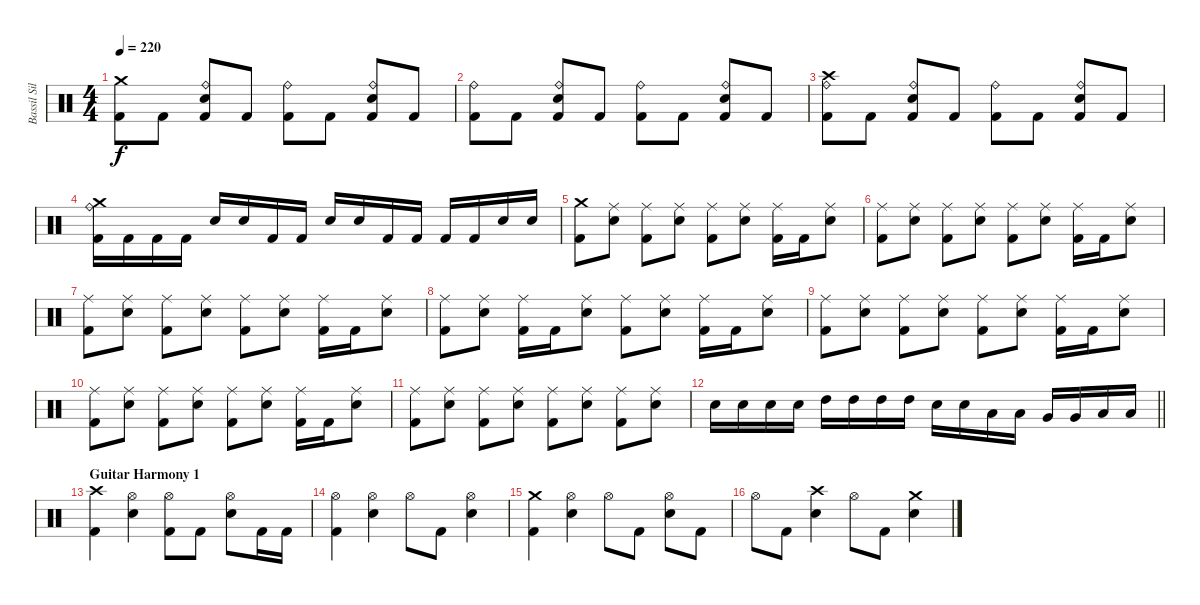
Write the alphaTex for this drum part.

\track ("Bassil Silver-Hajo" "Bassil Sil") {instrument percussion}
\staff {score}
\articulation defaults
\ts (4 4)
\tempo 220
\clef neutral
\ks c
("Crash medium (hit)" "Kick (hit) 2").8{dy f} "Kick (hit) 2".8 ("Ride (bell)" "Snare (hit) 2" "Kick (hit) 2").8 "Kick (hit) 2".8 ("Ride (bell)" "Kick (hit) 2").8 "Kick (hit) 2".8 ("Ride (bell)" "Snare (hit) 2" "Kick (hit) 2").8 "Kick (hit) 2".8 |
("Ride (bell)" "Kick (hit) 2").8 "Kick (hit) 2".8 ("Ride (bell)" "Snare (hit) 2" "Kick (hit) 2").8 "Kick (hit) 2".8 ("Ride (bell)" "Kick (hit) 2").8 "Kick (hit) 2".8 ("Ride (bell)" "Snare (hit) 2" "Kick (hit) 2").8 "Kick (hit) 2".8 |
("Crash high (hit)" "Ride (bell)" "Kick (hit) 2").8 "Kick (hit) 2".8 ("Ride (bell)" "Snare (hit) 2" "Kick (hit) 2").8 "Kick (hit) 2".8 ("Ride (bell)" "Kick (hit) 2").8 "Kick (hit) 2".8 ("Ride (bell)" "Snare (hit) 2" "Kick (hit) 2").8 "Kick (hit) 2".8 |
("Ride (bell)" "Crash medium (hit)" "Kick (hit) 2").16 "Kick (hit) 2".16 "Kick (hit) 2".16 "Kick (hit) 2".16 "Snare (hit) 2".16 "Snare (hit) 2".16 "Kick (hit) 2".16 "Kick (hit) 2".16 "Snare (hit) 2".16 "Snare (hit) 2".16 "Kick (hit) 2".16 "Kick (hit) 2".16 "Kick (hit) 2".16 "Kick (hit) 2".16 "Snare (hit) 2".16 "Snare (hit) 2".16 |
("Crash medium (hit)" "Kick (hit) 2").8 ("Ride (middle)" "Snare (hit) 2").8 ("Ride (middle)" "Kick (hit) 2").8 ("Ride (middle)" "Snare (hit) 2").8 ("Ride (middle)" "Kick (hit) 2").8 ("Ride (middle)" "Snare (hit) 2").8 ("Ride (middle)" "Kick (hit) 2").16 "Kick (hit) 2".16 ("Ride (middle)" "Snare (hit) 2").8 |
("Ride (middle)" "Kick (hit) 2").8 ("Ride (middle)" "Snare (hit) 2").8 ("Ride (middle)" "Kick (hit) 2").8 ("Ride (middle)" "Snare (hit) 2").8 ("Ride (middle)" "Kick (hit) 2").8 ("Ride (middle)" "Snare (hit) 2").8 ("Ride (middle)" "Kick (hit) 2").16 "Kick (hit) 2".16 ("Ride (middle)" "Snare (hit) 2").8 |
("Ride (middle)" "Kick (hit) 2").8 ("Ride (middle)" "Snare (hit) 2").8 ("Ride (middle)" "Kick (hit) 2").8 ("Ride (middle)" "Snare (hit) 2").8 ("Ride (middle)" "Kick (hit) 2").8 ("Ride (middle)" "Snare (hit) 2").8 ("Ride (middle)" "Kick (hit) 2").16 "Kick (hit) 2".16 ("Ride (middle)" "Snare (hit) 2").8 |
("Ride (middle)" "Kick (hit) 2").8 ("Ride (middle)" "Snare (hit) 2").8 ("Ride (middle)" "Kick (hit) 2").16 "Kick (hit) 2".16 ("Ride (middle)" "Snare (hit) 2").8 ("Ride (middle)" "Kick (hit) 2").8 ("Ride (middle)" "Snare (hit) 2").8 ("Ride (middle)" "Kick (hit) 2").16 "Kick (hit) 2".16 ("Ride (middle)" "Snare (hit) 2").8 |
("Ride (middle)" "Kick (hit) 2").8 ("Ride (middle)" "Snare (hit) 2").8 ("Ride (middle)" "Kick (hit) 2").8 ("Ride (middle)" "Snare (hit) 2").8 ("Ride (middle)" "Kick (hit) 2").8 ("Ride (middle)" "Snare (hit) 2").8 ("Ride (middle)" "Kick (hit) 2").16 "Kick (hit) 2".16 ("Ride (middle)" "Snare (hit) 2").8 |
("Ride (middle)" "Kick (hit) 2").8 ("Ride (middle)" "Snare (hit) 2").8 ("Ride (middle)" "Kick (hit) 2").8 ("Ride (middle)" "Snare (hit) 2").8 ("Ride (middle)" "Kick (hit) 2").8 ("Ride (middle)" "Snare (hit) 2").8 ("Ride (middle)" "Kick (hit) 2").16 "Kick (hit) 2".16 ("Ride (middle)" "Snare (hit) 2").8 |
("Ride (middle)" "Kick (hit) 2").8 ("Ride (middle)" "Snare (hit) 2").8 ("Ride (middle)" "Kick (hit) 2").8 ("Ride (middle)" "Snare (hit) 2").8 ("Ride (middle)" "Kick (hit) 2").8 ("Ride (middle)" "Snare (hit) 2").8 ("Ride (middle)" "Kick (hit) 2").8 ("Ride (middle)" "Snare (hit) 2").8 |
\barLineRight lightlight "Snare (hit) 2".16 "Snare (hit) 2".16 "Snare (hit) 2".16 "Snare (hit) 2".16 "High Tom (hit)".16 "High Tom (hit)".16 "High Tom (hit)".16 "High Tom (hit)".16 "Snare (hit) 2".16 "Snare (hit) 2".16 "Low Tom (hit)".16 "Low Tom (hit)".16 "Very Low Tom (hit)".16 "Very Low Tom (hit)".16 "Low Floor Tom (hit)".16 "Low Floor Tom (hit)".16
|
\section ("" "Guitar Harmony 1")
("Crash high (hit)" "Kick (hit) 2").4 ("Hi-Hat (open)" "Snare (hit) 2").4 ("Hi-Hat (open)" "Kick (hit) 2").8 "Kick (hit) 2".8 ("Hi-Hat (open)" "Snare (hit) 2").8 "Kick (hit) 2".16 "Kick (hit) 2".16 |
("Hi-Hat (open)" "Kick (hit) 2").4 ("Hi-Hat (open)" "Snare (hit) 2").4 "Hi-Hat (open)".8 "Kick (hit) 2".8 ("Hi-Hat (open)" "Snare (hit) 2").4 |
("Crash medium (hit)" "Kick (hit) 2").4 ("Hi-Hat (open)" "Snare (hit) 2").4 "Hi-Hat (open)".8 "Kick (hit) 2".8 ("Hi-Hat (open)" "Snare (hit) 2").8 "Kick (hit) 2".8 |
"Hi-Hat (open)".8 "Kick (hit) 2".8 ("Crash high (hit)" "Snare (hit) 2").4 "Hi-Hat (open)".8 "Kick (hit) 2".8 ("Crash medium (hit)" "Snare (hit) 2").4
